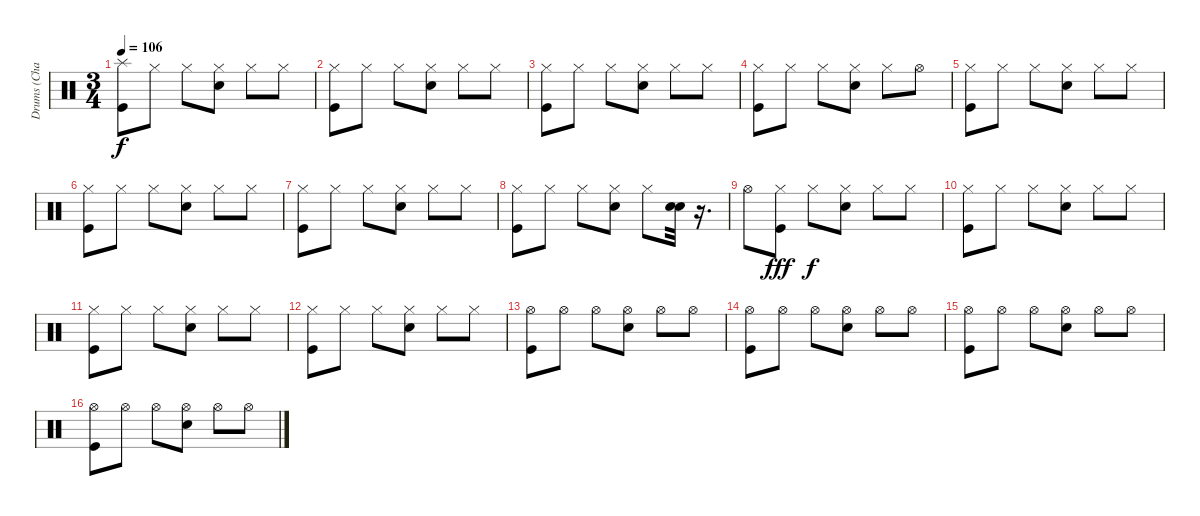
\track ("Drums (Chad?)" "Drums (Cha") {instrument percussion}
\staff {score}
\articulation defaults
\ts (3 4)
\tempo 106
\clef neutral
\ks c
("Splash (hit)" "Kick (hit)").8{dy f} "Hi-Hat (closed)".8 "Hi-Hat (closed)".8 ("Hi-Hat (closed)" "Snare (hit) 2").8 "Hi-Hat (closed)".8 "Hi-Hat (closed)".8 |
("Hi-Hat (closed)" "Kick (hit)").8 "Hi-Hat (closed)".8 "Hi-Hat (closed)".8 ("Hi-Hat (closed)" "Snare (hit) 2").8 "Hi-Hat (closed)".8 "Hi-Hat (closed)".8 |
("Hi-Hat (closed)" "Kick (hit)").8 "Hi-Hat (closed)".8 "Hi-Hat (closed)".8 ("Hi-Hat (closed)" "Snare (hit) 2").8 "Hi-Hat (closed)".8 "Hi-Hat (closed)".8 |
("Hi-Hat (closed)" "Kick (hit)").8 "Hi-Hat (closed)".8 "Hi-Hat (closed)".8 ("Hi-Hat (closed)" "Snare (hit) 2").8 "Hi-Hat (closed)".8 "Hi-Hat (open)".8 |
("Hi-Hat (closed)" "Kick (hit)").8 "Hi-Hat (closed)".8 "Hi-Hat (closed)".8 ("Hi-Hat (closed)" "Snare (hit) 2").8 "Hi-Hat (closed)".8 "Hi-Hat (closed)".8 |
("Hi-Hat (closed)" "Kick (hit)").8 "Hi-Hat (closed)".8 "Hi-Hat (closed)".8 ("Hi-Hat (closed)" "Snare (hit) 2").8 "Hi-Hat (closed)".8 "Hi-Hat (closed)".8 |
("Hi-Hat (closed)" "Kick (hit)").8 "Hi-Hat (closed)".8 "Hi-Hat (closed)".8 ("Hi-Hat (closed)" "Snare (hit) 2").8 "Hi-Hat (closed)".8 "Hi-Hat (closed)".8 |
("Hi-Hat (closed)" "Kick (hit)").8 "Hi-Hat (closed)".8 "Hi-Hat (closed)".8 ("Hi-Hat (closed)" "Snare (hit) 2").8 "Hi-Hat (closed)".8 ("Snare (hit) 2" "Snare (hit) 2").32 r.16{d} |
"Hi-Hat (open)".8 ("Hi-Hat (closed)" "Kick (hit)").8{dy fff} "Hi-Hat (closed)".8{dy f} ("Hi-Hat (closed)" "Snare (hit) 2").8 "Hi-Hat (closed)".8 "Hi-Hat (closed)".8 |
("Hi-Hat (closed)" "Kick (hit)").8 "Hi-Hat (closed)".8 "Hi-Hat (closed)".8 ("Hi-Hat (closed)" "Snare (hit) 2").8 "Hi-Hat (closed)".8 "Hi-Hat (closed)".8 |
("Hi-Hat (closed)" "Kick (hit)").8 "Hi-Hat (closed)".8 "Hi-Hat (closed)".8 ("Hi-Hat (closed)" "Snare (hit) 2").8 "Hi-Hat (closed)".8 "Hi-Hat (closed)".8 |
("Hi-Hat (closed)" "Kick (hit)").8 "Hi-Hat (closed)".8 "Hi-Hat (closed)".8 ("Hi-Hat (closed)" "Snare (hit) 2").8 "Hi-Hat (closed)".8 "Hi-Hat (closed)".8 |
("Hi-Hat (open)" "Kick (hit)").8 "Hi-Hat (open)".8 "Hi-Hat (open)".8 ("Hi-Hat (open)" "Snare (hit) 2").8 "Hi-Hat (open)".8 "Hi-Hat (open)".8 |
("Hi-Hat (open)" "Kick (hit)").8 "Hi-Hat (open)".8 "Hi-Hat (open)".8 ("Hi-Hat (open)" "Snare (hit) 2").8 "Hi-Hat (open)".8 "Hi-Hat (open)".8 |
("Hi-Hat (open)" "Kick (hit)").8 "Hi-Hat (open)".8 "Hi-Hat (open)".8 ("Hi-Hat (open)" "Snare (hit) 2").8 "Hi-Hat (open)".8 "Hi-Hat (open)".8 |
("Hi-Hat (open)" "Kick (hit)").8 "Hi-Hat (open)".8 "Hi-Hat (open)".8 ("Hi-Hat (open)" "Snare (hit) 2").8 "Hi-Hat (open)".8 "Hi-Hat (open)".8
